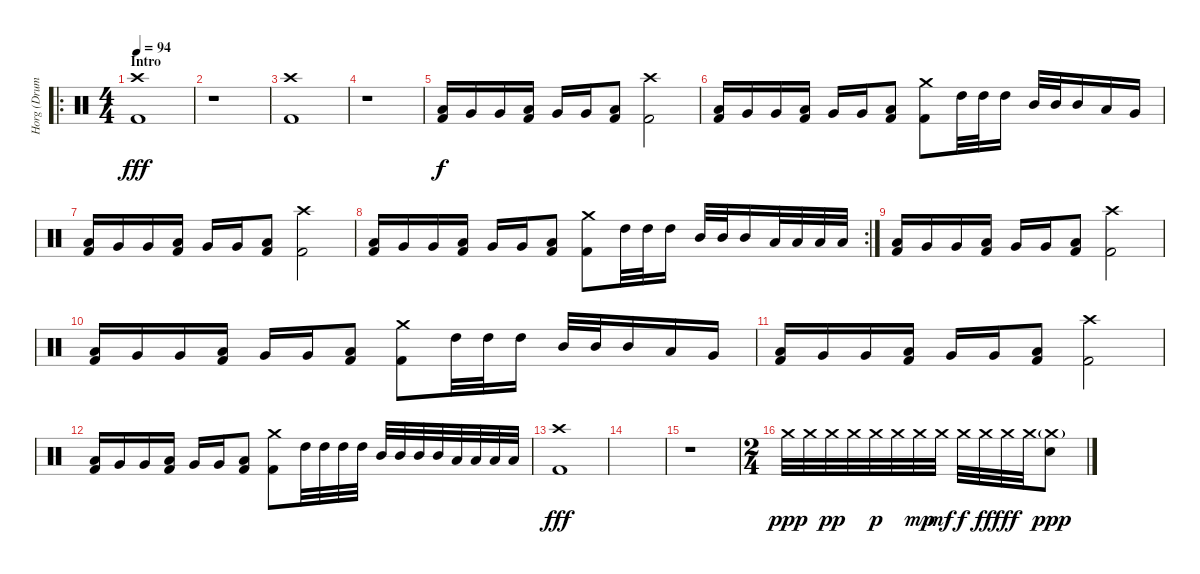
\track ("Horg (Drums)" "Horg (Drum") {instrument percussion}
\staff {score}
\articulation defaults
\ro
\ts (4 4)
\section ("" "Intro")
\tempo 94
\clef neutral
\ks c
("Crash high (hit)" "Kick (hit) 2").1{dy fff} |
r.1 |
("Crash high (hit)" "Kick (hit) 2").1 |
r.1 |
("Low Floor Tom (hit)" "Kick (hit) 2").16{dy f} "Very Low Tom (hit)".16 "Very Low Tom (hit)".16 ("Low Floor Tom (hit)" "Kick (hit) 2").16 "Very Low Tom (hit)".16 "Very Low Tom (hit)".16 ("Low Floor Tom (hit)" "Kick (hit) 2").8 ("Crash high (hit)" "Kick (hit) 2").2 |
("Low Floor Tom (hit)" "Kick (hit) 2").16 "Very Low Tom (hit)".16 "Very Low Tom (hit)".16 ("Low Floor Tom (hit)" "Kick (hit) 2").16 "Very Low Tom (hit)".16 "Very Low Tom (hit)".16 ("Low Floor Tom (hit)" "Kick (hit) 2").8 ("Crash medium (hit)" "Kick (hit) 2").8 "High Tom (hit)".32 "High Tom (hit)".32 "High Tom (hit)".16 "Mid Tom (hit)".32 "Mid Tom (hit)".32 "Mid Tom (hit)".16 "Low Tom (hit)".16 "Very Low Tom (hit)".16 |
("Low Floor Tom (hit)" "Kick (hit) 2").16 "Very Low Tom (hit)".16 "Very Low Tom (hit)".16 ("Low Floor Tom (hit)" "Kick (hit) 2").16 "Very Low Tom (hit)".16 "Very Low Tom (hit)".16 ("Low Floor Tom (hit)" "Kick (hit) 2").8 ("Crash high (hit)" "Kick (hit) 2").2 |
\rc 2
("Low Floor Tom (hit)" "Kick (hit) 2").16 "Very Low Tom (hit)".16 "Very Low Tom (hit)".16 ("Low Floor Tom (hit)" "Kick (hit) 2").16 "Very Low Tom (hit)".16 "Very Low Tom (hit)".16 ("Low Floor Tom (hit)" "Kick (hit) 2").8 ("Crash medium (hit)" "Kick (hit) 2").8 "High Tom (hit)".32 "High Tom (hit)".32 "High Tom (hit)".16 "Mid Tom (hit)".32 "Mid Tom (hit)".32 "Mid Tom (hit)".16 "Low Tom (hit)".32 "Low Tom (hit)".32 "Low Tom (hit)".32 "Low Tom (hit)".32 |
("Low Floor Tom (hit)" "Kick (hit) 2").16 "Very Low Tom (hit)".16 "Very Low Tom (hit)".16 ("Low Floor Tom (hit)" "Kick (hit) 2").16 "Very Low Tom (hit)".16 "Very Low Tom (hit)".16 ("Low Floor Tom (hit)" "Kick (hit) 2").8 ("Crash high (hit)" "Kick (hit) 2").2 |
("Low Floor Tom (hit)" "Kick (hit) 2").16 "Very Low Tom (hit)".16 "Very Low Tom (hit)".16 ("Low Floor Tom (hit)" "Kick (hit) 2").16 "Very Low Tom (hit)".16 "Very Low Tom (hit)".16 ("Low Floor Tom (hit)" "Kick (hit) 2").8 ("Crash medium (hit)" "Kick (hit) 2").8 "High Tom (hit)".32 "High Tom (hit)".32 "High Tom (hit)".16 "Mid Tom (hit)".32 "Mid Tom (hit)".32 "Mid Tom (hit)".16 "Low Tom (hit)".16 "Very Low Tom (hit)".16 |
("Low Floor Tom (hit)" "Kick (hit) 2").16 "Very Low Tom (hit)".16 "Very Low Tom (hit)".16 ("Low Floor Tom (hit)" "Kick (hit) 2").16 "Very Low Tom (hit)".16 "Very Low Tom (hit)".16 ("Low Floor Tom (hit)" "Kick (hit) 2").8 ("Crash high (hit)" "Kick (hit) 2").2 |
("Low Floor Tom (hit)" "Kick (hit) 2").16 "Very Low Tom (hit)".16 "Very Low Tom (hit)".16 ("Low Floor Tom (hit)" "Kick (hit) 2").16 "Very Low Tom (hit)".16 "Very Low Tom (hit)".16 ("Low Floor Tom (hit)" "Kick (hit) 2").8 ("Crash medium (hit)" "Kick (hit) 2").8 "High Tom (hit)".32 "High Tom (hit)".32 "High Tom (hit)".32 "High Tom (hit)".32 "Mid Tom (hit)".32 "Mid Tom (hit)".32 "Mid Tom (hit)".32 "Mid Tom (hit)".32 "Low Tom (hit)".32 "Low Tom (hit)".32 "Low Tom (hit)".32 "Low Tom (hit)".32 |
("Crash high (hit)" "Kick (hit) 2").1{dy fff} |
|
r.1 |
\ts (2 4)
"Crash medium (hit)".32{dy ppp} "Crash medium (hit)".32 "Crash medium (hit)".32{dy pp} "Crash medium (hit)".32 "Crash medium (hit)".32{dy p} "Crash medium (hit)".32 "Crash medium (hit)".32{dy mp} "Crash medium (hit)".32{dy mf} "Crash medium (hit)".32{dy f} "Crash medium (hit)".32{dy ff} "Crash medium (hit)".32{dy fff} "Crash medium (hit)".32 ("Crash medium (hit)"{g} "Electric Snare (hit)").8{dy ppp}
